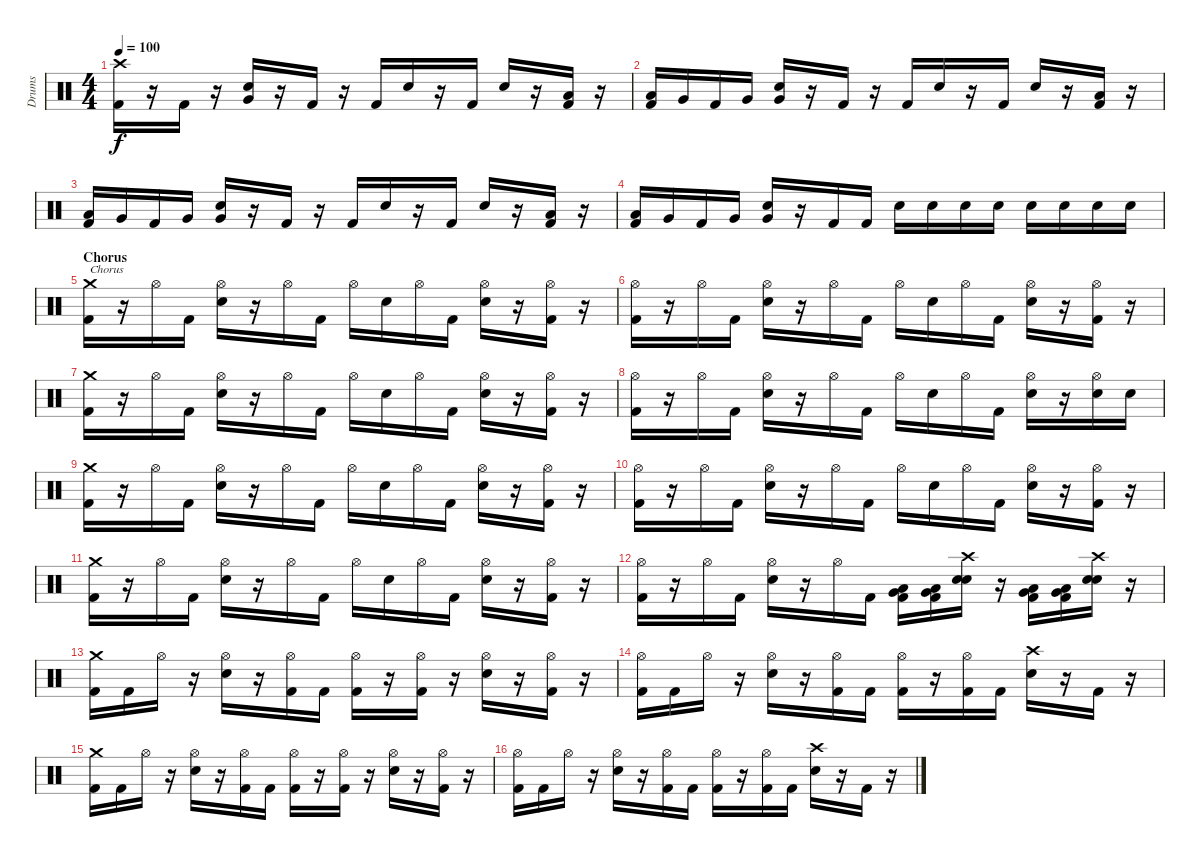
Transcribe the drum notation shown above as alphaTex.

\track ("Drums" "Drums") {instrument percussion}
\staff {score}
\articulation defaults
\ts (4 4)
\tempo 100
\clef neutral
\ks c
("Crash high (hit)" "Kick (hit) 2").16{dy f} r.16 "Kick (hit) 2".16 r.16 ("Very Low Tom (hit)" "Electric Snare (hit)").16 r.16 "Kick (hit) 2".16 r.16 "Kick (hit) 2".16 "Electric Snare (hit)".16 r.16 "Kick (hit) 2".16 "Electric Snare (hit)".16 r.16 ("Low Tom (hit)" "Kick (hit) 2").16 r.16 |
("Low Tom (hit)" "Kick (hit) 2").16 "Very Low Tom (hit)".16 "Kick (hit) 2".16 "Very Low Tom (hit)".16 ("Very Low Tom (hit)" "Electric Snare (hit)").16 r.16 "Kick (hit) 2".16 r.16 "Kick (hit) 2".16 "Electric Snare (hit)".16 r.16 "Kick (hit) 2".16 "Electric Snare (hit)".16 r.16 ("Low Tom (hit)" "Kick (hit) 2").16 r.16 |
("Low Tom (hit)" "Kick (hit) 2").16 "Very Low Tom (hit)".16 "Kick (hit) 2".16 "Very Low Tom (hit)".16 ("Very Low Tom (hit)" "Electric Snare (hit)").16 r.16 "Kick (hit) 2".16 r.16 "Kick (hit) 2".16 "Electric Snare (hit)".16 r.16 "Kick (hit) 2".16 "Electric Snare (hit)".16 r.16 ("Low Tom (hit)" "Kick (hit) 2").16 r.16 |
("Low Tom (hit)" "Kick (hit) 2").16 "Very Low Tom (hit)".16 "Kick (hit) 2".16 "Very Low Tom (hit)".16 ("Very Low Tom (hit)" "Electric Snare (hit)").16 r.16 "Kick (hit) 2".16 "Kick (hit) 2".16 "Electric Snare (hit)".16 "Electric Snare (hit)".16 "Electric Snare (hit)".16 "Electric Snare (hit)".16 "Electric Snare (hit)".16 "Electric Snare (hit)".16 "Electric Snare (hit)".16 "Electric Snare (hit)".16 |
\section ("" "Chorus ")
("Crash medium (hit)" "Kick (hit) 2").16{txt "Chorus"} r.16 "Hi-Hat (open)".16 "Kick (hit) 2".16 ("Hi-Hat (open)" "Electric Snare (hit)").16 r.16 "Hi-Hat (open)".16 "Kick (hit) 2".16 "Hi-Hat (open)".16 "Electric Snare (hit)".16 "Hi-Hat (open)".16 "Kick (hit) 2".16 ("Hi-Hat (open)" "Electric Snare (hit)").16 r.16 ("Hi-Hat (open)" "Kick (hit) 2").16 r.16 |
("Hi-Hat (open)" "Kick (hit) 2").16 r.16 "Hi-Hat (open)".16 "Kick (hit) 2".16 ("Hi-Hat (open)" "Electric Snare (hit)").16 r.16 "Hi-Hat (open)".16 "Kick (hit) 2".16 "Hi-Hat (open)".16 "Electric Snare (hit)".16 "Hi-Hat (open)".16 "Kick (hit) 2".16 ("Hi-Hat (open)" "Electric Snare (hit)").16 r.16 ("Hi-Hat (open)" "Kick (hit) 2").16 r.16 |
("Crash medium (hit)" "Kick (hit) 2").16 r.16 "Hi-Hat (open)".16 "Kick (hit) 2".16 ("Hi-Hat (open)" "Electric Snare (hit)").16 r.16 "Hi-Hat (open)".16 "Kick (hit) 2".16 "Hi-Hat (open)".16 "Electric Snare (hit)".16 "Hi-Hat (open)".16 "Kick (hit) 2".16 ("Hi-Hat (open)" "Electric Snare (hit)").16 r.16 ("Hi-Hat (open)" "Kick (hit) 2").16 r.16 |
("Hi-Hat (open)" "Kick (hit) 2").16 r.16 "Hi-Hat (open)".16 "Kick (hit) 2".16 ("Hi-Hat (open)" "Electric Snare (hit)").16 r.16 "Hi-Hat (open)".16 "Kick (hit) 2".16 "Hi-Hat (open)".16 "Electric Snare (hit)".16 "Hi-Hat (open)".16 "Kick (hit) 2".16 ("Hi-Hat (open)" "Electric Snare (hit)").16 r.16 ("Hi-Hat (open)" "Electric Snare (hit)").16 "Electric Snare (hit)".16 |
("Crash medium (hit)" "Kick (hit) 2").16 r.16 "Hi-Hat (open)".16 "Kick (hit) 2".16 ("Hi-Hat (open)" "Electric Snare (hit)").16 r.16 "Hi-Hat (open)".16 "Kick (hit) 2".16 "Hi-Hat (open)".16 "Electric Snare (hit)".16 "Hi-Hat (open)".16 "Kick (hit) 2".16 ("Hi-Hat (open)" "Electric Snare (hit)").16 r.16 ("Hi-Hat (open)" "Kick (hit) 2").16 r.16 |
("Hi-Hat (open)" "Kick (hit) 2").16 r.16 "Hi-Hat (open)".16 "Kick (hit) 2".16 ("Hi-Hat (open)" "Electric Snare (hit)").16 r.16 "Hi-Hat (open)".16 "Kick (hit) 2".16 "Hi-Hat (open)".16 "Electric Snare (hit)".16 "Hi-Hat (open)".16 "Kick (hit) 2".16 ("Hi-Hat (open)" "Electric Snare (hit)").16 r.16 ("Hi-Hat (open)" "Kick (hit) 2").16 r.16 |
("Crash medium (hit)" "Kick (hit) 2").16 r.16 "Hi-Hat (open)".16 "Kick (hit) 2".16 ("Hi-Hat (open)" "Electric Snare (hit)").16 r.16 "Hi-Hat (open)".16 "Kick (hit) 2".16 "Hi-Hat (open)".16 "Electric Snare (hit)".16 "Hi-Hat (open)".16 "Kick (hit) 2".16 ("Hi-Hat (open)" "Electric Snare (hit)").16 r.16 ("Hi-Hat (open)" "Kick (hit) 2").16 r.16 |
("Hi-Hat (open)" "Kick (hit) 2").16 r.16 "Hi-Hat (open)".16 "Kick (hit) 2".16 ("Hi-Hat (open)" "Electric Snare (hit)").16 r.16 "Hi-Hat (open)".16 "Kick (hit) 2".16 ("Very Low Tom (hit)" "Low Floor Tom (hit)" "Kick (hit) 2").16 ("Very Low Tom (hit)" "Low Floor Tom (hit)" "Kick (hit) 2").16 ("Crash high (hit)" "Snare (hit) 2" "Electric Snare (hit)").16 r.16 ("Very Low Tom (hit)" "Low Floor Tom (hit)" "Kick (hit) 2").16 ("Very Low Tom (hit)" "Low Floor Tom (hit)" "Kick (hit) 2").16 ("Crash high (hit)" "Snare (hit) 2" "Electric Snare (hit)").16 r.16 |
("Crash medium (hit)" "Kick (hit) 2").16 "Kick (hit) 2".16 "Hi-Hat (open)".16 r.16 ("Hi-Hat (open)" "Electric Snare (hit)").16 r.16 ("Hi-Hat (open)" "Kick (hit) 2").16 "Kick (hit) 2".16 ("Hi-Hat (open)" "Kick (hit) 2").16 r.16 ("Hi-Hat (open)" "Kick (hit) 2").16 r.16 ("Hi-Hat (open)" "Electric Snare (hit)").16 r.16 ("Hi-Hat (open)" "Kick (hit) 2").16 r.16 |
("Hi-Hat (open)" "Kick (hit) 2").16 "Kick (hit) 2".16 "Hi-Hat (open)".16 r.16 ("Hi-Hat (open)" "Electric Snare (hit)").16 r.16 ("Hi-Hat (open)" "Kick (hit) 2").16 "Kick (hit) 2".16 ("Hi-Hat (open)" "Kick (hit) 2").16 r.16 ("Hi-Hat (open)" "Kick (hit) 2").16 "Kick (hit) 2".16 ("Crash high (hit)" "Electric Snare (hit)").16 r.16 "Kick (hit) 2".16 r.16 |
("Crash medium (hit)" "Kick (hit) 2").16 "Kick (hit) 2".16 "Hi-Hat (open)".16 r.16 ("Hi-Hat (open)" "Electric Snare (hit)").16 r.16 ("Hi-Hat (open)" "Kick (hit) 2").16 "Kick (hit) 2".16 ("Hi-Hat (open)" "Kick (hit) 2").16 r.16 ("Hi-Hat (open)" "Kick (hit) 2").16 r.16 ("Hi-Hat (open)" "Electric Snare (hit)").16 r.16 ("Hi-Hat (open)" "Kick (hit) 2").16 r.16 |
("Hi-Hat (open)" "Kick (hit) 2").16 "Kick (hit) 2".16 "Hi-Hat (open)".16 r.16 ("Hi-Hat (open)" "Electric Snare (hit)").16 r.16 ("Hi-Hat (open)" "Kick (hit) 2").16 "Kick (hit) 2".16 ("Hi-Hat (open)" "Kick (hit) 2").16 r.16 ("Hi-Hat (open)" "Kick (hit) 2").16 "Kick (hit) 2".16 ("Crash high (hit)" "Electric Snare (hit)").16 r.16 "Kick (hit) 2".16 r.16
